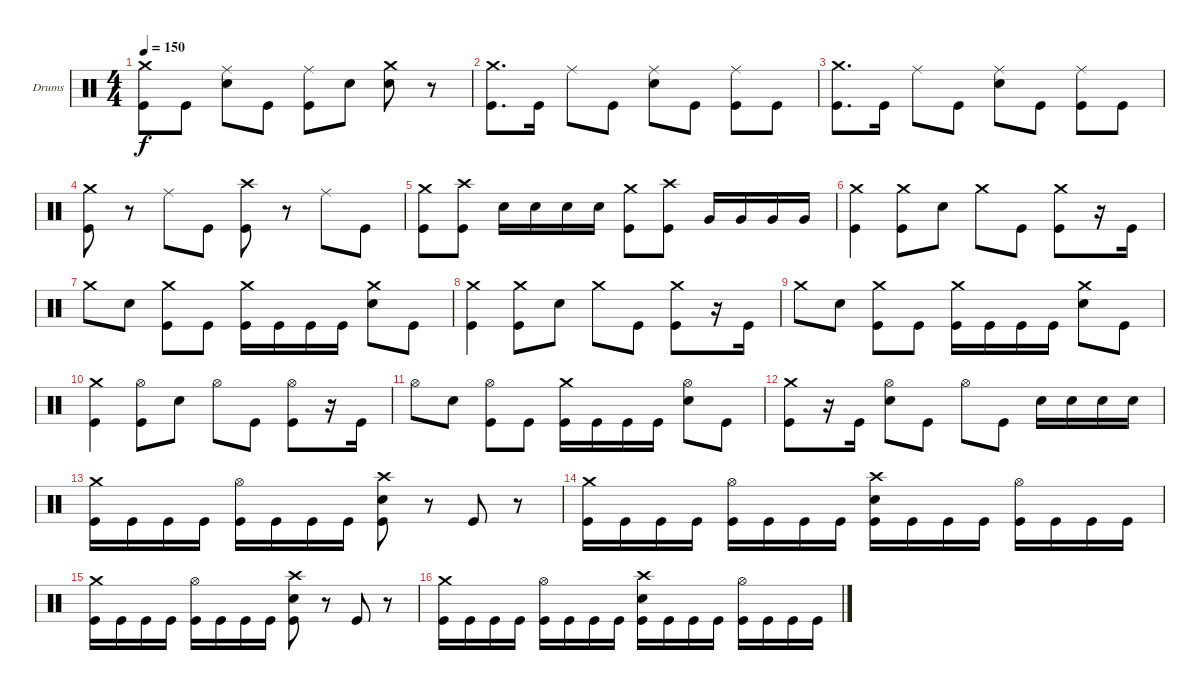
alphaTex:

\defaultSystemsLayout 4
\bracketExtendMode groupsimilarinstruments
\firstSystemTrackNameOrientation horizontal
\otherSystemsTrackNameOrientation horizontal
\track ("Moe Carlson" "Drums") {instrument percussion}
\staff {score}
\articulation defaults
\ts (4 4)
\tempo 150
\clef neutral
\ks c
("Crash medium (hit)" "Kick (hit)").8{dy f} "Kick (hit)".8 ("Ride (middle)" "Snare (hit) 2").8 "Kick (hit)".8 ("Kick (hit)" "Ride (middle)").8 "Snare (hit) 2".8 ("Snare (hit) 2" "Crash medium (hit)").8 r.8 |
("Crash medium (hit)" "Kick (hit)").8{d} "Kick (hit)".16 "Ride (middle)".8 "Kick (hit)".8 ("Snare (hit) 2" "Ride (middle)").8 "Kick (hit)".8 ("Kick (hit)" "Ride (middle)").8 "Kick (hit)".8 |
("Crash medium (hit)" "Kick (hit)").8{d} "Kick (hit)".16 "Ride (middle)".8 "Kick (hit)".8 ("Snare (hit) 2" "Ride (middle)").8 "Kick (hit)".8 ("Kick (hit)" "Ride (middle)").8 "Kick (hit)".8 |
("Crash medium (hit)" "Kick (hit)").8 r.8 "Ride (middle)".8 "Kick (hit)".8 ("Kick (hit)" "Crash high (hit)").8 r.8 "Ride (middle)".8 "Kick (hit)".8 |
("Kick (hit)" "Crash medium (hit)").8 ("Kick (hit)" "Crash high (hit)").8 "Snare (hit) 2".16 "Snare (hit) 2".16 "Snare (hit) 2".16 "Snare (hit) 2".16 ("Crash medium (hit)" "Kick (hit)").8 ("Kick (hit)" "Crash high (hit)").8 "Very Low Tom (hit)".16 "Very Low Tom (hit)".16 "Very Low Tom (hit)".16 "Very Low Tom (hit)".16 |
("Kick (hit)" "Crash medium (hit)").4 ("Crash medium (hit)" "Kick (hit)").8 "Snare (hit) 2".8 "Crash medium (hit)".8 "Kick (hit)".8 ("Kick (hit)" "Crash medium (hit)").8 r.16 "Kick (hit)".16 |
"Crash medium (hit)".8 "Snare (hit) 2".8 ("Crash medium (hit)" "Kick (hit)").8 "Kick (hit)".8 ("Kick (hit)" "Crash medium (hit)").16 "Kick (hit)".16 "Kick (hit)".16 "Kick (hit)".16 ("Snare (hit) 2" "Crash medium (hit)").8 "Kick (hit)".8 |
("Kick (hit)" "Crash medium (hit)").4 ("Crash medium (hit)" "Kick (hit)").8 "Snare (hit) 2".8 "Crash medium (hit)".8 "Kick (hit)".8 ("Kick (hit)" "Crash medium (hit)").8 r.16 "Kick (hit)".16 |
"Crash medium (hit)".8 "Snare (hit) 2".8 ("Crash medium (hit)" "Kick (hit)").8 "Kick (hit)".8 ("Kick (hit)" "Crash medium (hit)").16 "Kick (hit)".16 "Kick (hit)".16 "Kick (hit)".16 ("Snare (hit) 2" "Crash medium (hit)").8 "Kick (hit)".8 |
("Kick (hit)" "Crash medium (hit)").4 ("Kick (hit)" "Hi-Hat (open)").8 "Snare (hit) 2".8 "Hi-Hat (open)".8 "Kick (hit)".8 ("Kick (hit)" "Hi-Hat (open)").8 r.16 "Kick (hit)".16 |
"Hi-Hat (open)".8 "Snare (hit) 2".8 ("Kick (hit)" "Hi-Hat (open)").8 "Kick (hit)".8 ("Kick (hit)" "Crash medium (hit)").16 "Kick (hit)".16 "Kick (hit)".16 "Kick (hit)".16 ("Snare (hit) 2" "Hi-Hat (open)").8 "Kick (hit)".8 |
("Kick (hit)" "Crash medium (hit)").8 r.16 "Kick (hit)".16 ("Snare (hit) 2" "Hi-Hat (open)").8 "Kick (hit)".8 "Hi-Hat (open)".8 "Kick (hit)".8 "Snare (hit) 2".16 "Snare (hit) 2".16 "Snare (hit) 2".16 "Snare (hit) 2".16 |
("Kick (hit)" "Crash medium (hit)").16 "Kick (hit)".16 "Kick (hit)".16 "Kick (hit)".16 ("Kick (hit)" "Hi-Hat (open)").16 "Kick (hit)".16 "Kick (hit)".16 "Kick (hit)".16 ("Kick (hit)" "Snare (hit) 2" "Crash high (hit)").8 r.8 "Kick (hit)".8 r.8 |
("Kick (hit)" "Crash medium (hit)").16 "Kick (hit)".16 "Kick (hit)".16 "Kick (hit)".16 ("Kick (hit)" "Hi-Hat (open)").16 "Kick (hit)".16 "Kick (hit)".16 "Kick (hit)".16 ("Kick (hit)" "Crash high (hit)" "Snare (hit) 2").16 "Kick (hit)".16 "Kick (hit)".16 "Kick (hit)".16 ("Kick (hit)" "Hi-Hat (open)").16 "Kick (hit)".16 "Kick (hit)".16 "Kick (hit)".16 |
("Kick (hit)" "Crash medium (hit)").16 "Kick (hit)".16 "Kick (hit)".16 "Kick (hit)".16 ("Kick (hit)" "Hi-Hat (open)").16 "Kick (hit)".16 "Kick (hit)".16 "Kick (hit)".16 ("Kick (hit)" "Snare (hit) 2" "Crash high (hit)").8 r.8 "Kick (hit)".8 r.8 |
("Kick (hit)" "Crash medium (hit)").16 "Kick (hit)".16 "Kick (hit)".16 "Kick (hit)".16 ("Kick (hit)" "Hi-Hat (open)").16 "Kick (hit)".16 "Kick (hit)".16 "Kick (hit)".16 ("Kick (hit)" "Crash high (hit)" "Snare (hit) 2").16 "Kick (hit)".16 "Kick (hit)".16 "Kick (hit)".16 ("Kick (hit)" "Hi-Hat (open)").16 "Kick (hit)".16 "Kick (hit)".16 "Kick (hit)".16
